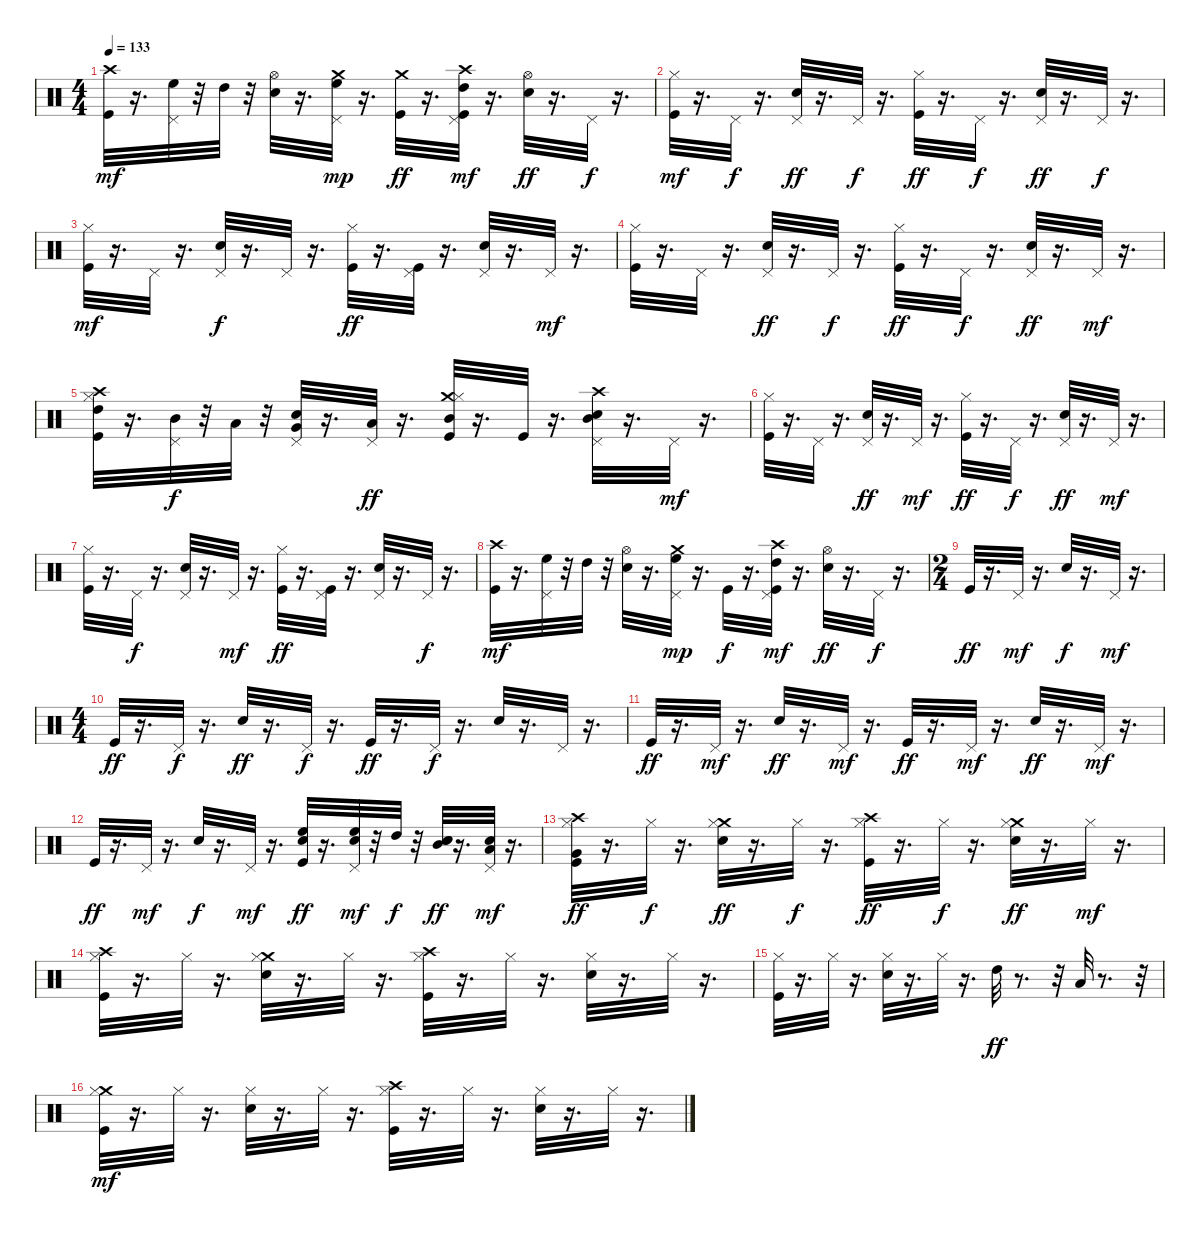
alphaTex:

\track "" {instrument percussion}
\staff {score}
\articulation defaults
\ts (4 4)
\tempo 133
\clef neutral
\ks c
("Crash high (hit)" "Kick (hit)").32{dy mf} r.16{d} ("Pedal Hi-Hat (hit)" "High Floor Tom (hit)").32 r.32 "High Tom (hit)".32 r.32 ("Hi-Hat (open)" "Snare (hit) 2").32 r.16{d} ("Pedal Hi-Hat (hit)" "Crash medium (hit)" "High Floor Tom (hit)").32{dy mp} r.16{d} ("Crash medium (hit)" "Kick (hit)").32{dy ff} r.16{d} ("Pedal Hi-Hat (hit)" "Crash high (hit)" "High Tom (hit)" "Kick (hit)").32{dy mf} r.16{d} ("Hi-Hat (open)" "Snare (hit) 2").32{dy ff} r.16{d} "Pedal Hi-Hat (hit)".32{dy f} r.16{d} |
("Hi-Hat (closed)" "Kick (hit)").32{dy mf} r.16{d} "Pedal Hi-Hat (hit)".32{dy f} r.16{d} ("Pedal Hi-Hat (hit)" "Snare (hit) 2").32{dy ff} r.16{d} "Pedal Hi-Hat (hit)".32{dy f} r.16{d} ("Hi-Hat (closed)" "Kick (hit)").32{dy ff} r.16{d} "Pedal Hi-Hat (hit)".32{dy f} r.16{d} ("Pedal Hi-Hat (hit)" "Snare (hit) 2").32{dy ff} r.16{d} "Pedal Hi-Hat (hit)".32{dy f} r.16{d} |
("Hi-Hat (closed)" "Kick (hit)").32{dy mf} r.16{d} "Pedal Hi-Hat (hit)".32 r.16{d} ("Pedal Hi-Hat (hit)" "Snare (hit) 2").32{dy f} r.16{d} "Pedal Hi-Hat (hit)".32 r.16{d} ("Hi-Hat (closed)" "Kick (hit)").32{dy ff} r.16{d} ("Pedal Hi-Hat (hit)" "Kick (hit)").32 r.16{d} ("Pedal Hi-Hat (hit)" "Snare (hit) 2").32 r.16{d} "Pedal Hi-Hat (hit)".32{dy mf} r.16{d} |
("Hi-Hat (closed)" "Kick (hit)").32 r.16{d} "Pedal Hi-Hat (hit)".32 r.16{d} ("Pedal Hi-Hat (hit)" "Snare (hit) 2").32{dy ff} r.16{d} "Pedal Hi-Hat (hit)".32{dy f} r.16{d} ("Hi-Hat (closed)" "Kick (hit)").32{dy ff} r.16{d} "Pedal Hi-Hat (hit)".32{dy f} r.16{d} ("Pedal Hi-Hat (hit)" "Snare (hit) 2").32{dy ff} r.16{d} "Pedal Hi-Hat (hit)".32{dy mf} r.16{d} |
("Crash high (hit)" "High Tom (hit)" "Hi-Hat (closed)" "Kick (hit)").32 r.16{d} ("Pedal Hi-Hat (hit)" "Mid Tom (hit)").32{dy f} r.32 "Low Tom (hit)".32 r.32 ("Very Low Tom (hit)" "Pedal Hi-Hat (hit)" "Snare (hit) 2").32 r.16{d} ("Pedal Hi-Hat (hit)" "Low Tom (hit)").32{dy ff} r.16{d} ("Crash medium (hit)" "Mid Tom (hit)" "Hi-Hat (closed)" "Kick (hit)").32 r.16{d} "Kick (hit)".32 r.16{d} ("Crash high (hit)" "Mid Tom (hit)" "Pedal Hi-Hat (hit)" "Snare (hit) 2").32 r.16{d} "Pedal Hi-Hat (hit)".32{dy mf} r.16{d} |
("Hi-Hat (closed)" "Kick (hit)").32 r.16{d} "Pedal Hi-Hat (hit)".32 r.16{d} ("Pedal Hi-Hat (hit)" "Snare (hit) 2").32{dy ff} r.16{d} "Pedal Hi-Hat (hit)".32{dy mf} r.16{d} ("Hi-Hat (closed)" "Kick (hit)").32{dy ff} r.16{d} "Pedal Hi-Hat (hit)".32{dy f} r.16{d} ("Pedal Hi-Hat (hit)" "Snare (hit) 2").32{dy ff} r.16{d} "Pedal Hi-Hat (hit)".32{dy mf} r.16{d} |
("Hi-Hat (closed)" "Kick (hit)").32 r.16{d} "Pedal Hi-Hat (hit)".32{dy f} r.16{d} ("Pedal Hi-Hat (hit)" "Snare (hit) 2").32 r.16{d} "Pedal Hi-Hat (hit)".32{dy mf} r.16{d} ("Hi-Hat (closed)" "Kick (hit)").32{dy ff} r.16{d} ("Pedal Hi-Hat (hit)" "Kick (hit)").32 r.16{d} ("Pedal Hi-Hat (hit)" "Snare (hit) 2").32 r.16{d} "Pedal Hi-Hat (hit)".32{dy f} r.16{d} |
("Crash high (hit)" "Kick (hit)").32{dy mf} r.16{d} ("Pedal Hi-Hat (hit)" "High Floor Tom (hit)").32 r.32 "High Tom (hit)".32 r.32 ("Hi-Hat (open)" "Snare (hit) 2").32 r.16{d} ("Pedal Hi-Hat (hit)" "Crash medium (hit)" "High Floor Tom (hit)").32{dy mp} r.16{d} "Kick (hit)".32{dy f} r.16{d} ("Pedal Hi-Hat (hit)" "Crash high (hit)" "High Tom (hit)" "Kick (hit)").32{dy mf} r.16{d} ("Hi-Hat (open)" "Snare (hit) 2").32{dy ff} r.16{d} "Pedal Hi-Hat (hit)".32{dy f} r.16{d} |
\ts (2 4)
"Kick (hit)".32{dy ff} r.16{d} "Pedal Hi-Hat (hit)".32{dy mf} r.16{d} "Snare (hit) 2".32{dy f} r.16{d} "Pedal Hi-Hat (hit)".32{dy mf} r.16{d} |
\ts (4 4)
"Kick (hit)".32{dy ff} r.16{d} "Pedal Hi-Hat (hit)".32{dy f} r.16{d} "Snare (hit) 2".32{dy ff} r.16{d} "Pedal Hi-Hat (hit)".32{dy f} r.16{d} "Kick (hit)".32{dy ff} r.16{d} "Pedal Hi-Hat (hit)".32{dy f} r.16{d} "Snare (hit) 2".32 r.16{d} "Pedal Hi-Hat (hit)".32 r.16{d} |
"Kick (hit)".32{dy ff} r.16{d} "Pedal Hi-Hat (hit)".32{dy mf} r.16{d} "Snare (hit) 2".32{dy ff} r.16{d} "Pedal Hi-Hat (hit)".32{dy mf} r.16{d} "Kick (hit)".32{dy ff} r.16{d} "Pedal Hi-Hat (hit)".32{dy mf} r.16{d} "Snare (hit) 2".32{dy ff} r.16{d} "Pedal Hi-Hat (hit)".32{dy mf} r.16{d} |
"Kick (hit)".32{dy ff} r.16{d} "Pedal Hi-Hat (hit)".32{dy mf} r.16{d} "Snare (hit) 2".32{dy f} r.16{d} "Pedal Hi-Hat (hit)".32{dy mf} r.16{d} ("High Floor Tom (hit)" "Snare (hit) 2" "Kick (hit)").32{dy ff} r.16{d} ("High Floor Tom (hit)" "Snare (hit) 2" "Pedal Hi-Hat (hit)").32{dy mf} r.32 "High Tom (hit)".32{dy f} r.32 ("Mid Tom (hit)" "Snare (hit) 2" "Snare (hit) 2").32{dy ff} r.16{d} ("Low Tom (hit)" "Snare (hit) 2" "Pedal Hi-Hat (hit)").32{dy mf} r.16{d} |
("Crash high (hit)" "Very Low Tom (hit)" "Kick (hit)" "Hi-Hat (closed)").32{dy ff} r.16{d} "Hi-Hat (closed)".32{dy f} r.16{d} ("Crash medium (hit)" "Snare (hit) 2" "Hi-Hat (closed)").32{dy ff} r.16{d} "Hi-Hat (closed)".32{dy f} r.16{d} ("Crash high (hit)" "Kick (hit)" "Hi-Hat (closed)").32{dy ff} r.16{d} "Hi-Hat (closed)".32{dy f} r.16{d} ("Crash medium (hit)" "Snare (hit) 2" "Hi-Hat (closed)").32{dy ff} r.16{d} "Hi-Hat (closed)".32{dy mf} r.16{d} |
("Crash high (hit)" "Kick (hit)" "Hi-Hat (closed)").32 r.16{d} "Hi-Hat (closed)".32 r.16{d} ("Crash medium (hit)" "Snare (hit) 2" "Hi-Hat (closed)").32 r.16{d} "Hi-Hat (closed)".32 r.16{d} ("Crash high (hit)" "Kick (hit)" "Hi-Hat (closed)").32 r.16{d} "Hi-Hat (closed)".32 r.16{d} ("Snare (hit) 2" "Hi-Hat (closed)").32 r.16{d} "Hi-Hat (closed)".32 r.16{d} |
("Kick (hit)" "Hi-Hat (closed)").32 r.16{d} "Hi-Hat (closed)".32 r.16{d} ("Snare (hit) 2" "Hi-Hat (closed)").32 r.16{d} "Hi-Hat (closed)".32 r.16{d} "High Tom (hit)".32{dy ff} r.8{d} r.32 "Low Tom (hit)".32 r.8{d} r.32 |
("Crash medium (hit)" "Kick (hit)" "Hi-Hat (closed)").32{dy mf} r.16{d} "Hi-Hat (closed)".32 r.16{d} ("Snare (hit) 2" "Hi-Hat (closed)").32 r.16{d} "Hi-Hat (closed)".32 r.16{d} ("Crash high (hit)" "Kick (hit)" "Hi-Hat (closed)").32 r.16{d} "Hi-Hat (closed)".32 r.16{d} ("Snare (hit) 2" "Hi-Hat (closed)").32 r.16{d} "Hi-Hat (closed)".32 r.16{d}
